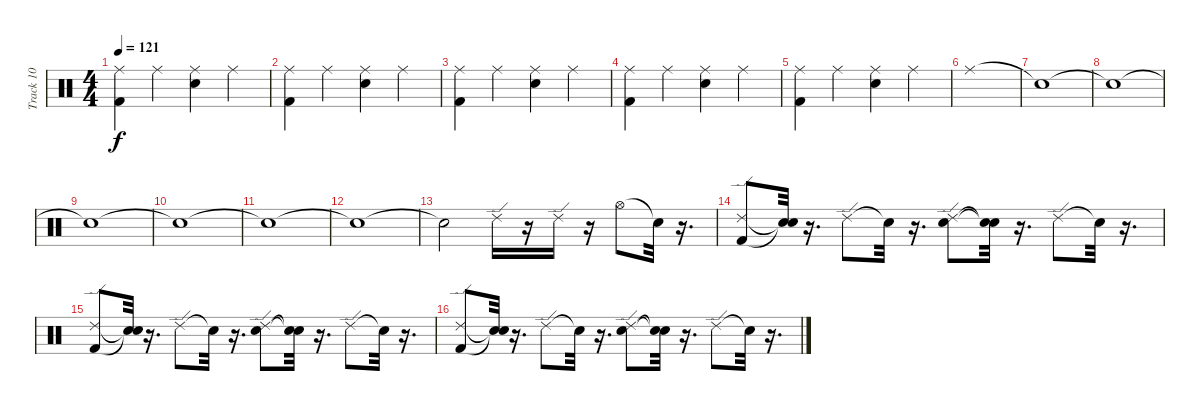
\track ("Track 10" "Track 10") {instrument percussion}
\staff {score}
\articulation defaults
\ts (4 4)
\tempo 121
\clef neutral
\ks c
("Ride (middle)" "Kick (hit) 2").4{dy f} "Ride (middle)".4 ("Snare (hit) 2" "Ride (middle)").4 "Ride (middle)".4 |
("Ride (middle)" "Kick (hit) 2").4 "Ride (middle)".4 ("Snare (hit) 2" "Ride (middle)").4 "Ride (middle)".4 |
("Ride (middle)" "Kick (hit) 2").4 "Ride (middle)".4 ("Snare (hit) 2" "Ride (middle)").4 "Ride (middle)".4 |
("Ride (middle)" "Kick (hit) 2").4 "Ride (middle)".4 ("Snare (hit) 2" "Ride (middle)").4 "Ride (middle)".4 |
("Ride (middle)" "Kick (hit) 2").4 "Ride (middle)".4 ("Snare (hit) 2" "Ride (middle)").4 "Ride (middle)".4 |
"Ride (middle)".1 |
"Snare (hit)"{t}.1 |
"Snare (hit)"{t}.1 |
"Snare (hit)"{t}.1 |
"Snare (hit)"{t}.1 |
"Snare (hit)"{t}.1 |
"Snare (hit)"{t}.1 |
"Snare (hit)"{t}.2 "Ride (edge) 2".16 r.16 "Ride (edge) 2".16 r.16 "Hi-Hat (open)".8 "Snare (hit)"{t}.32 r.16{d} |
("Ride (edge) 2" "Kick (hit) 2").8 ("Snare (hit)"{t} "Snare (hit)"{t}).32 r.16{d} "Ride (edge) 2".8 "Snare (hit)"{t}.32 r.16{d} ("Ride (edge) 2" "Snare (hit) 2").8 ("Snare (hit)"{t} "Snare (hit)"{t}).32 r.16{d} "Ride (edge) 2".8 "Snare (hit)"{t}.32 r.16{d} |
("Ride (edge) 2" "Kick (hit) 2").8 ("Snare (hit)"{t} "Snare (hit)"{t}).32 r.16{d} "Ride (edge) 2".8 "Snare (hit)"{t}.32 r.16{d} ("Ride (edge) 2" "Snare (hit) 2").8 ("Snare (hit)"{t} "Snare (hit)"{t}).32 r.16{d} "Ride (edge) 2".8 "Snare (hit)"{t}.32 r.16{d} |
("Ride (edge) 2" "Kick (hit) 2").8 ("Snare (hit)"{t} "Snare (hit)"{t}).32 r.16{d} "Ride (edge) 2".8 "Snare (hit)"{t}.32 r.16{d} ("Ride (edge) 2" "Snare (hit) 2").8 ("Snare (hit)"{t} "Snare (hit)"{t}).32 r.16{d} "Ride (edge) 2".8 "Snare (hit)"{t}.32 r.16{d}
